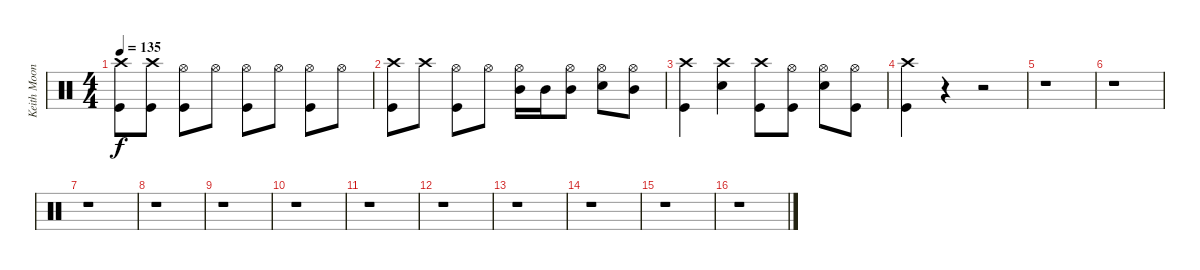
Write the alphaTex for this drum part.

\track ("Keith Moon" "Keith Moon") {instrument percussion}
\staff {score}
\articulation defaults
\ts (4 4)
\tempo 135
\clef neutral
\ks c
("Crash high (hit)" "Kick (hit)").8{dy f} ("Crash high (hit)" "Kick (hit)").8 ("Hi-Hat (open)" "Kick (hit)").8 "Hi-Hat (open)".8 ("Hi-Hat (open)" "Kick (hit)").8 "Hi-Hat (open)".8 ("Hi-Hat (open)" "Kick (hit)").8 "Hi-Hat (open)".8 |
("Crash high (hit)" "Kick (hit)").8 "Crash high (hit)".8 ("Hi-Hat (open)" "Kick (hit)").8 "Hi-Hat (open)".8 ("Hi-Hat (open)" "Mid Tom (hit)").16 "Mid Tom (hit)".16 ("Hi-Hat (open)" "Mid Tom (hit)").8 ("Hi-Hat (open)" "Snare (hit) 2").8 ("Hi-Hat (open)" "Mid Tom (hit)").8 |
("Crash high (hit)" "Kick (hit)").4 ("Crash high (hit)" "Snare (hit) 2").4 ("Crash high (hit)" "Kick (hit)").8 ("Hi-Hat (open)" "Kick (hit)").8 ("Hi-Hat (open)" "Snare (hit) 2").8 ("Hi-Hat (open)" "Kick (hit)").8 |
("Crash high (hit)" "Kick (hit)").4 r.4 r.2 |
r.1 |
r.1 |
r.1 |
r.1 |
r.1 |
r.1 |
r.1 |
r.1 |
r.1 |
r.1 |
r.1 |
r.1
